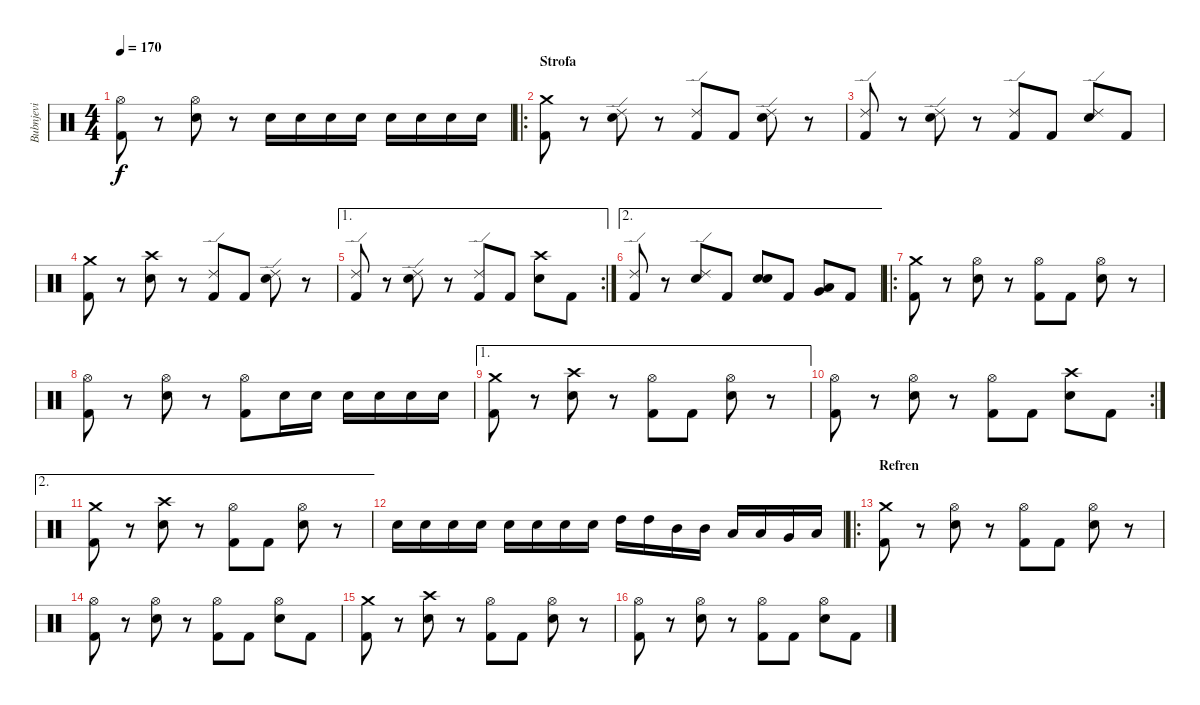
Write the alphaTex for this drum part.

\track ("Bubnjevi" "Bubnjevi") {instrument percussion}
\staff {score}
\articulation defaults
\ts (4 4)
\tempo 170
\clef neutral
\ks c
("Hi-Hat (open)" "Kick (hit) 2").8{dy f} r.8 ("Hi-Hat (open)" "Electric Snare (hit)").8 r.8 "Electric Snare (hit)".16 "Electric Snare (hit)".16 "Electric Snare (hit)".16 "Electric Snare (hit)".16 "Electric Snare (hit)".16 "Electric Snare (hit)".16 "Electric Snare (hit)".16 "Electric Snare (hit)".16 |
\ro
\section ("" "Strofa")
("Crash medium (hit)" "Kick (hit) 2").8 r.8 ("Ride (edge) 2" "Electric Snare (hit)").8 r.8 ("Ride (edge) 2" "Kick (hit) 2").8 "Kick (hit) 2".8 ("Ride (edge) 2" "Electric Snare (hit)").8 r.8 |
("Ride (edge) 2" "Kick (hit) 2").8 r.8 ("Ride (edge) 2" "Electric Snare (hit)").8 r.8 ("Ride (edge) 2" "Kick (hit) 2").8 "Kick (hit) 2".8 ("Ride (edge) 2" "Electric Snare (hit)").8 "Kick (hit) 2".8 |
("Crash medium (hit)" "Kick (hit) 2").8 r.8 ("Crash high (hit)" "Electric Snare (hit)").8 r.8 ("Ride (edge) 2" "Kick (hit) 2").8 "Kick (hit) 2".8 ("Ride (edge) 2" "Electric Snare (hit)").8 r.8 |
\ae 1
\rc 2
("Ride (edge) 2" "Kick (hit) 2").8 r.8 ("Ride (edge) 2" "Electric Snare (hit)").8 r.8 ("Ride (edge) 2" "Kick (hit) 2").8 "Kick (hit) 2".8 ("Crash high (hit)" "Electric Snare (hit)").8 "Kick (hit) 2".8 |
\ae 2
("Ride (edge) 2" "Kick (hit) 2").8 r.8 ("Ride (edge) 2" "Electric Snare (hit)").8 "Kick (hit) 2".8 ("Electric Snare (hit)" "Electric Snare (hit)").8{bd 120} "Kick (hit) 2".8 ("Low Tom (hit)" "Very Low Tom (hit)").8{bd 240} "Kick (hit) 2".8 |
\ro
("Crash medium (hit)" "Kick (hit) 2").8 r.8 ("Hi-Hat (open)" "Electric Snare (hit)").8 r.8 ("Hi-Hat (open)" "Kick (hit) 2").8 "Kick (hit) 2".8 ("Hi-Hat (open)" "Electric Snare (hit)").8 r.8 |
("Hi-Hat (open)" "Kick (hit) 2").8 r.8 ("Hi-Hat (open)" "Electric Snare (hit)").8 r.8 ("Hi-Hat (open)" "Kick (hit) 2").8 "Electric Snare (hit)".16 "Electric Snare (hit)".16 "Electric Snare (hit)".16 "Electric Snare (hit)".16 "Electric Snare (hit)".16 "Electric Snare (hit)".16 |
\ae 1
("Crash medium (hit)" "Kick (hit) 2").8 r.8 ("Crash high (hit)" "Electric Snare (hit)").8 r.8 ("Hi-Hat (open)" "Kick (hit) 2").8 "Kick (hit) 2".8 ("Hi-Hat (open)" "Electric Snare (hit)").8 r.8 |
\rc 2
("Hi-Hat (open)" "Kick (hit) 2").8 r.8 ("Hi-Hat (open)" "Electric Snare (hit)").8 r.8 ("Hi-Hat (open)" "Kick (hit) 2").8 "Kick (hit) 2".8 ("Crash high (hit)" "Electric Snare (hit)").8 "Kick (hit) 2".8 |
\ae 2
("Crash medium (hit)" "Kick (hit) 2").8 r.8 ("Crash high (hit)" "Electric Snare (hit)").8 r.8 ("Hi-Hat (open)" "Kick (hit) 2").8 "Kick (hit) 2".8 ("Hi-Hat (open)" "Electric Snare (hit)").8 r.8 |
"Electric Snare (hit)".16 "Electric Snare (hit)".16 "Electric Snare (hit)".16 "Electric Snare (hit)".16 "Electric Snare (hit)".16 "Electric Snare (hit)".16 "Electric Snare (hit)".16 "Electric Snare (hit)".16 "High Tom (hit)".16 "High Tom (hit)".16 "Mid Tom (hit)".16 "Mid Tom (hit)".16 "Low Tom (hit)".16 "Low Tom (hit)".16 "Very Low Tom (hit)".16 "Low Floor Tom (hit)".16 |
\ro
\section ("" "Refren")
("Crash medium (hit)" "Kick (hit) 2").8 r.8 ("Hi-Hat (open)" "Electric Snare (hit)").8 r.8 ("Hi-Hat (open)" "Kick (hit) 2").8 "Kick (hit) 2".8 ("Hi-Hat (open)" "Electric Snare (hit)").8 r.8 |
("Hi-Hat (open)" "Kick (hit) 2").8 r.8 ("Hi-Hat (open)" "Electric Snare (hit)").8 r.8 ("Hi-Hat (open)" "Kick (hit) 2").8 "Kick (hit) 2".8 ("Hi-Hat (open)" "Electric Snare (hit)").8 "Kick (hit) 2".8 |
("Crash medium (hit)" "Kick (hit) 2").8 r.8 ("Crash high (hit)" "Electric Snare (hit)").8 r.8 ("Hi-Hat (open)" "Kick (hit) 2").8 "Kick (hit) 2".8 ("Hi-Hat (open)" "Electric Snare (hit)").8 r.8 |
("Hi-Hat (open)" "Kick (hit) 2").8 r.8 ("Hi-Hat (open)" "Electric Snare (hit)").8 r.8 ("Hi-Hat (open)" "Kick (hit) 2").8 "Kick (hit) 2".8 ("Hi-Hat (open)" "Electric Snare (hit)").8 "Kick (hit) 2".8
